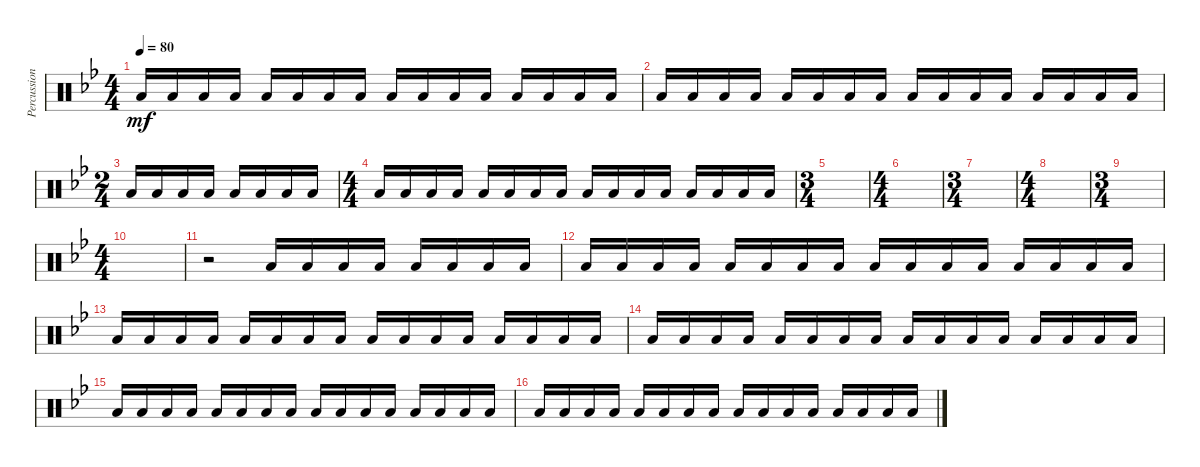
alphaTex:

\track ("Percussion" "Percussion") {instrument percussion}
\staff {score}
\articulation defaults
\ts (4 4)
\tempo 80
\clef neutral
\ks bb "Low Floor Tom (hit)".16{dy mf} "Low Floor Tom (hit)".16 "Low Floor Tom (hit)".16 "Low Floor Tom (hit)".16 "Low Floor Tom (hit)".16 "Low Floor Tom (hit)".16 "Low Floor Tom (hit)".16 "Low Floor Tom (hit)".16 "Low Floor Tom (hit)".16 "Low Floor Tom (hit)".16 "Low Floor Tom (hit)".16 "Low Floor Tom (hit)".16 "Low Floor Tom (hit)".16 "Low Floor Tom (hit)".16 "Low Floor Tom (hit)".16 "Low Floor Tom (hit)".16
|
"Low Floor Tom (hit)".16 "Low Floor Tom (hit)".16 "Low Floor Tom (hit)".16 "Low Floor Tom (hit)".16 "Low Floor Tom (hit)".16 "Low Floor Tom (hit)".16 "Low Floor Tom (hit)".16 "Low Floor Tom (hit)".16 "Low Floor Tom (hit)".16 "Low Floor Tom (hit)".16 "Low Floor Tom (hit)".16 "Low Floor Tom (hit)".16 "Low Floor Tom (hit)".16 "Low Floor Tom (hit)".16 "Low Floor Tom (hit)".16 "Low Floor Tom (hit)".16 |
\ts (2 4)
"Low Floor Tom (hit)".16 "Low Floor Tom (hit)".16 "Low Floor Tom (hit)".16 "Low Floor Tom (hit)".16 "Low Floor Tom (hit)".16 "Low Floor Tom (hit)".16 "Low Floor Tom (hit)".16 "Low Floor Tom (hit)".16 |
\ts (4 4)
"Low Floor Tom (hit)".16 "Low Floor Tom (hit)".16 "Low Floor Tom (hit)".16 "Low Floor Tom (hit)".16 "Low Floor Tom (hit)".16 "Low Floor Tom (hit)".16 "Low Floor Tom (hit)".16 "Low Floor Tom (hit)".16 "Low Floor Tom (hit)".16 "Low Floor Tom (hit)".16 "Low Floor Tom (hit)".16 "Low Floor Tom (hit)".16 "Low Floor Tom (hit)".16 "Low Floor Tom (hit)".16 "Low Floor Tom (hit)".16 "Low Floor Tom (hit)".16 |
\ts (3 4)
|
\ts (4 4)
|
\ts (3 4)
|
\ts (4 4)
|
\ts (3 4)
|
\ts (4 4)
|
r.2 "Low Floor Tom (hit)".16 "Low Floor Tom (hit)".16 "Low Floor Tom (hit)".16 "Low Floor Tom (hit)".16 "Low Floor Tom (hit)".16 "Low Floor Tom (hit)".16 "Low Floor Tom (hit)".16 "Low Floor Tom (hit)".16 |
"Low Floor Tom (hit)".16 "Low Floor Tom (hit)".16 "Low Floor Tom (hit)".16 "Low Floor Tom (hit)".16 "Low Floor Tom (hit)".16 "Low Floor Tom (hit)".16 "Low Floor Tom (hit)".16 "Low Floor Tom (hit)".16 "Low Floor Tom (hit)".16 "Low Floor Tom (hit)".16 "Low Floor Tom (hit)".16 "Low Floor Tom (hit)".16 "Low Floor Tom (hit)".16 "Low Floor Tom (hit)".16 "Low Floor Tom (hit)".16 "Low Floor Tom (hit)".16 |
"Low Floor Tom (hit)".16 "Low Floor Tom (hit)".16 "Low Floor Tom (hit)".16 "Low Floor Tom (hit)".16 "Low Floor Tom (hit)".16 "Low Floor Tom (hit)".16 "Low Floor Tom (hit)".16 "Low Floor Tom (hit)".16 "Low Floor Tom (hit)".16 "Low Floor Tom (hit)".16 "Low Floor Tom (hit)".16 "Low Floor Tom (hit)".16 "Low Floor Tom (hit)".16 "Low Floor Tom (hit)".16 "Low Floor Tom (hit)".16 "Low Floor Tom (hit)".16 |
"Low Floor Tom (hit)".16 "Low Floor Tom (hit)".16 "Low Floor Tom (hit)".16 "Low Floor Tom (hit)".16 "Low Floor Tom (hit)".16 "Low Floor Tom (hit)".16 "Low Floor Tom (hit)".16 "Low Floor Tom (hit)".16 "Low Floor Tom (hit)".16 "Low Floor Tom (hit)".16 "Low Floor Tom (hit)".16 "Low Floor Tom (hit)".16 "Low Floor Tom (hit)".16 "Low Floor Tom (hit)".16 "Low Floor Tom (hit)".16 "Low Floor Tom (hit)".16 |
"Low Floor Tom (hit)".16 "Low Floor Tom (hit)".16 "Low Floor Tom (hit)".16 "Low Floor Tom (hit)".16 "Low Floor Tom (hit)".16 "Low Floor Tom (hit)".16 "Low Floor Tom (hit)".16 "Low Floor Tom (hit)".16 "Low Floor Tom (hit)".16 "Low Floor Tom (hit)".16 "Low Floor Tom (hit)".16 "Low Floor Tom (hit)".16 "Low Floor Tom (hit)".16 "Low Floor Tom (hit)".16 "Low Floor Tom (hit)".16 "Low Floor Tom (hit)".16 |
"Low Floor Tom (hit)".16 "Low Floor Tom (hit)".16 "Low Floor Tom (hit)".16 "Low Floor Tom (hit)".16 "Low Floor Tom (hit)".16 "Low Floor Tom (hit)".16 "Low Floor Tom (hit)".16 "Low Floor Tom (hit)".16 "Low Floor Tom (hit)".16 "Low Floor Tom (hit)".16 "Low Floor Tom (hit)".16 "Low Floor Tom (hit)".16 "Low Floor Tom (hit)".16 "Low Floor Tom (hit)".16 "Low Floor Tom (hit)".16 "Low Floor Tom (hit)".16
